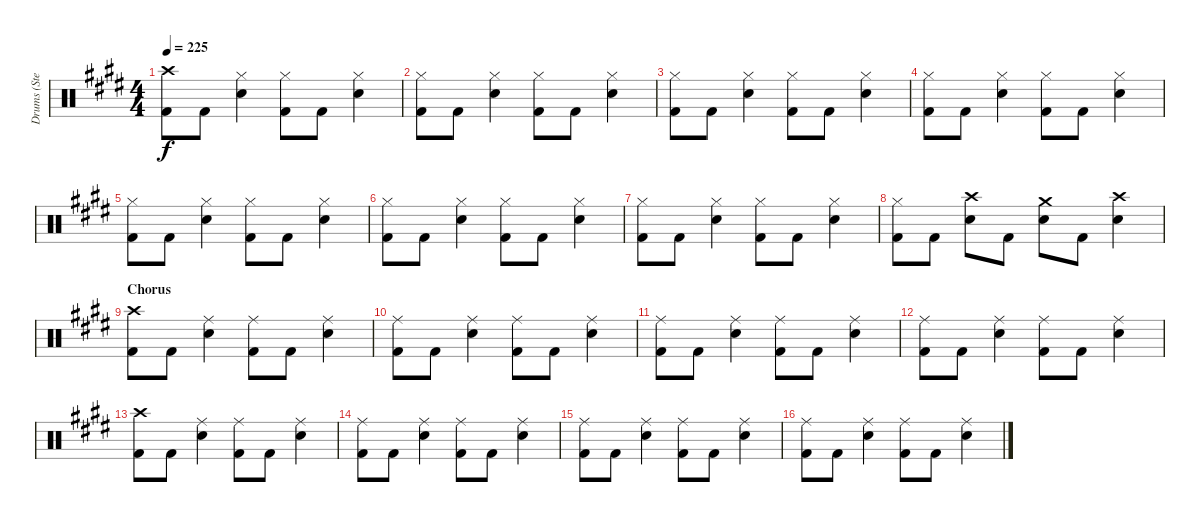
\track ("Drums (Steven)" "Drums (Ste") {instrument percussion}
\staff {score}
\articulation defaults
\ts (4 4)
\tempo 225
\clef neutral
\ks e
("Crash high (hit)" "Kick (hit) 2").8{dy f} "Kick (hit) 2".8 ("Hi-Hat (closed)" "Snare (hit) 2").4 ("Hi-Hat (closed)" "Kick (hit) 2").8 "Kick (hit) 2".8 ("Hi-Hat (closed)" "Snare (hit) 2").4 |
("Hi-Hat (closed)" "Kick (hit) 2").8 "Kick (hit) 2".8 ("Hi-Hat (closed)" "Snare (hit) 2").4 ("Hi-Hat (closed)" "Kick (hit) 2").8 "Kick (hit) 2".8 ("Hi-Hat (closed)" "Snare (hit) 2").4 |
("Hi-Hat (closed)" "Kick (hit) 2").8 "Kick (hit) 2".8 ("Hi-Hat (closed)" "Snare (hit) 2").4 ("Hi-Hat (closed)" "Kick (hit) 2").8 "Kick (hit) 2".8 ("Hi-Hat (closed)" "Snare (hit) 2").4 |
("Hi-Hat (closed)" "Kick (hit) 2").8 "Kick (hit) 2".8 ("Hi-Hat (closed)" "Snare (hit) 2").4 ("Hi-Hat (closed)" "Kick (hit) 2").8 "Kick (hit) 2".8 ("Hi-Hat (closed)" "Snare (hit) 2").4 |
("Hi-Hat (closed)" "Kick (hit) 2").8 "Kick (hit) 2".8 ("Hi-Hat (closed)" "Snare (hit) 2").4 ("Hi-Hat (closed)" "Kick (hit) 2").8 "Kick (hit) 2".8 ("Hi-Hat (closed)" "Snare (hit) 2").4 |
("Hi-Hat (closed)" "Kick (hit) 2").8 "Kick (hit) 2".8 ("Hi-Hat (closed)" "Snare (hit) 2").4 ("Hi-Hat (closed)" "Kick (hit) 2").8 "Kick (hit) 2".8 ("Hi-Hat (closed)" "Snare (hit) 2").4 |
("Hi-Hat (closed)" "Kick (hit) 2").8 "Kick (hit) 2".8 ("Hi-Hat (closed)" "Snare (hit) 2").4 ("Hi-Hat (closed)" "Kick (hit) 2").8 "Kick (hit) 2".8 ("Hi-Hat (closed)" "Snare (hit) 2").4 |
("Hi-Hat (closed)" "Kick (hit) 2").8 "Kick (hit) 2".8 ("Crash high (hit)" "Snare (hit) 2").8 "Kick (hit) 2".8 ("Crash medium (hit)" "Snare (hit) 2").8 "Kick (hit) 2".8 ("Crash high (hit)" "Snare (hit) 2").4 |
\section ("" "Chorus")
("Crash high (hit)" "Kick (hit) 2").8 "Kick (hit) 2".8 ("Ride (middle)" "Snare (hit) 2").4 ("Ride (middle)" "Kick (hit) 2").8 "Kick (hit) 2".8 ("Ride (middle)" "Snare (hit) 2").4 |
("Ride (middle)" "Kick (hit) 2").8 "Kick (hit) 2".8 ("Ride (middle)" "Snare (hit) 2").4 ("Ride (middle)" "Kick (hit) 2").8 "Kick (hit) 2".8 ("Ride (middle)" "Snare (hit) 2").4 |
("Ride (middle)" "Kick (hit) 2").8 "Kick (hit) 2".8 ("Ride (middle)" "Snare (hit) 2").4 ("Ride (middle)" "Kick (hit) 2").8 "Kick (hit) 2".8 ("Ride (middle)" "Snare (hit) 2").4 |
("Ride (middle)" "Kick (hit) 2").8 "Kick (hit) 2".8 ("Ride (middle)" "Snare (hit) 2").4 ("Ride (middle)" "Kick (hit) 2").8 "Kick (hit) 2".8 ("Ride (middle)" "Snare (hit) 2").4 |
("Crash high (hit)" "Kick (hit) 2").8 "Kick (hit) 2".8 ("Ride (middle)" "Snare (hit) 2").4 ("Ride (middle)" "Kick (hit) 2").8 "Kick (hit) 2".8 ("Ride (middle)" "Snare (hit) 2").4 |
("Ride (middle)" "Kick (hit) 2").8 "Kick (hit) 2".8 ("Ride (middle)" "Snare (hit) 2").4 ("Ride (middle)" "Kick (hit) 2").8 "Kick (hit) 2".8 ("Ride (middle)" "Snare (hit) 2").4 |
("Ride (middle)" "Kick (hit) 2").8 "Kick (hit) 2".8 ("Ride (middle)" "Snare (hit) 2").4 ("Ride (middle)" "Kick (hit) 2").8 "Kick (hit) 2".8 ("Ride (middle)" "Snare (hit) 2").4 |
("Ride (middle)" "Kick (hit) 2").8 "Kick (hit) 2".8 ("Ride (middle)" "Snare (hit) 2").4 ("Ride (middle)" "Kick (hit) 2").8 "Kick (hit) 2".8 ("Ride (middle)" "Snare (hit) 2").4
